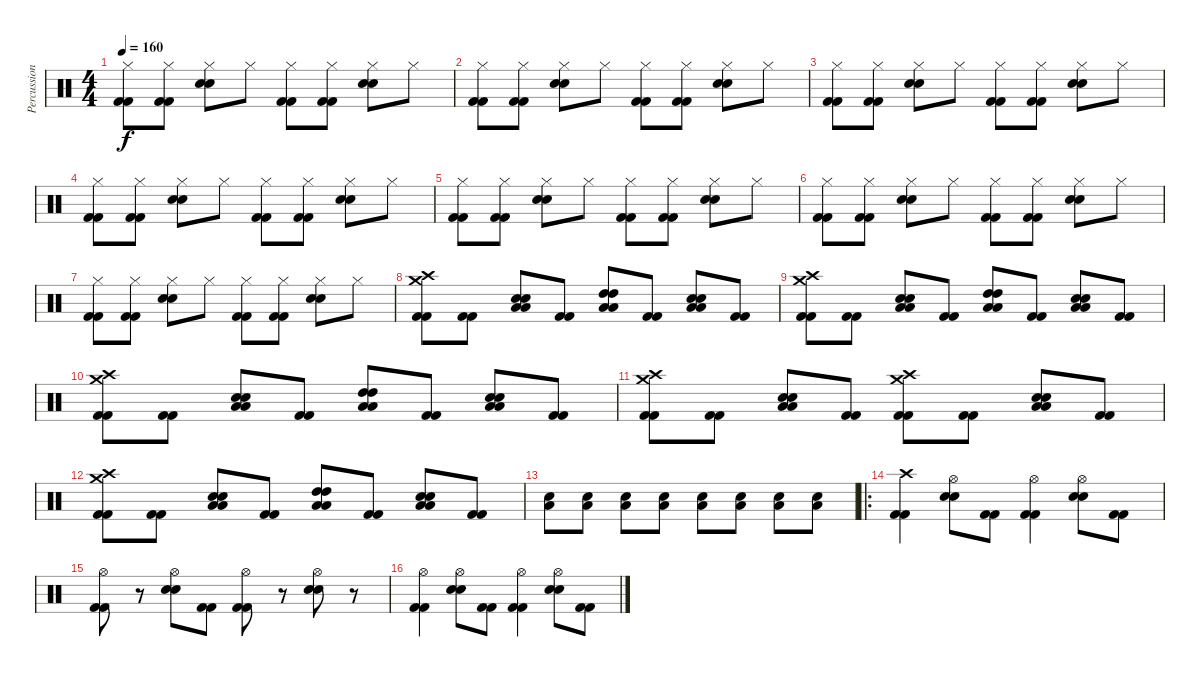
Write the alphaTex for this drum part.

\track ("Percussion" "Percussion") {instrument percussion}
\staff {score}
\articulation defaults
\ts (4 4)
\tempo 160
\clef neutral
\ks c
("Hi-Hat (closed)" "Kick (hit) 2" "Kick (hit) 2").8{dy f} ("Hi-Hat (closed)" "Kick (hit) 2" "Kick (hit) 2").8 ("Hi-Hat (closed)" "Snare (hit) 2" "Snare (hit) 2").8 "Hi-Hat (closed)".8 ("Hi-Hat (closed)" "Kick (hit) 2" "Kick (hit) 2").8 ("Hi-Hat (closed)" "Kick (hit) 2" "Kick (hit) 2").8 ("Hi-Hat (closed)" "Snare (hit) 2" "Snare (hit) 2").8 "Hi-Hat (closed)".8 |
("Hi-Hat (closed)" "Kick (hit) 2" "Kick (hit) 2").8 ("Hi-Hat (closed)" "Kick (hit) 2" "Kick (hit) 2").8 ("Hi-Hat (closed)" "Snare (hit) 2" "Snare (hit) 2").8 "Hi-Hat (closed)".8 ("Hi-Hat (closed)" "Kick (hit) 2" "Kick (hit) 2").8 ("Hi-Hat (closed)" "Kick (hit) 2" "Kick (hit) 2").8 ("Hi-Hat (closed)" "Snare (hit) 2" "Snare (hit) 2").8 "Hi-Hat (closed)".8 |
("Hi-Hat (closed)" "Kick (hit) 2" "Kick (hit) 2").8 ("Hi-Hat (closed)" "Kick (hit) 2" "Kick (hit) 2").8 ("Hi-Hat (closed)" "Snare (hit) 2" "Snare (hit) 2").8 "Hi-Hat (closed)".8 ("Hi-Hat (closed)" "Kick (hit) 2" "Kick (hit) 2").8 ("Hi-Hat (closed)" "Kick (hit) 2" "Kick (hit) 2").8 ("Hi-Hat (closed)" "Snare (hit) 2" "Snare (hit) 2").8 "Hi-Hat (closed)".8 |
("Hi-Hat (closed)" "Kick (hit) 2" "Kick (hit) 2").8 ("Hi-Hat (closed)" "Kick (hit) 2" "Kick (hit) 2").8 ("Hi-Hat (closed)" "Snare (hit) 2" "Snare (hit) 2").8 "Hi-Hat (closed)".8 ("Hi-Hat (closed)" "Kick (hit) 2" "Kick (hit) 2").8 ("Hi-Hat (closed)" "Kick (hit) 2" "Kick (hit) 2").8 ("Hi-Hat (closed)" "Snare (hit) 2" "Snare (hit) 2").8 "Hi-Hat (closed)".8 |
("Hi-Hat (closed)" "Kick (hit) 2" "Kick (hit) 2").8 ("Hi-Hat (closed)" "Kick (hit) 2" "Kick (hit) 2").8 ("Hi-Hat (closed)" "Snare (hit) 2" "Snare (hit) 2").8 "Hi-Hat (closed)".8 ("Hi-Hat (closed)" "Kick (hit) 2" "Kick (hit) 2").8 ("Hi-Hat (closed)" "Kick (hit) 2" "Kick (hit) 2").8 ("Hi-Hat (closed)" "Snare (hit) 2" "Snare (hit) 2").8 "Hi-Hat (closed)".8 |
("Hi-Hat (closed)" "Kick (hit) 2" "Kick (hit) 2").8 ("Hi-Hat (closed)" "Kick (hit) 2" "Kick (hit) 2").8 ("Hi-Hat (closed)" "Snare (hit) 2" "Snare (hit) 2").8 "Hi-Hat (closed)".8 ("Hi-Hat (closed)" "Kick (hit) 2" "Kick (hit) 2").8 ("Hi-Hat (closed)" "Kick (hit) 2" "Kick (hit) 2").8 ("Hi-Hat (closed)" "Snare (hit) 2" "Snare (hit) 2").8 "Hi-Hat (closed)".8 |
("Hi-Hat (closed)" "Kick (hit) 2" "Kick (hit) 2").8 ("Hi-Hat (closed)" "Kick (hit) 2" "Kick (hit) 2").8 ("Hi-Hat (closed)" "Snare (hit) 2" "Snare (hit) 2").8 "Hi-Hat (closed)".8 ("Hi-Hat (closed)" "Kick (hit) 2" "Kick (hit) 2").8 ("Hi-Hat (closed)" "Kick (hit) 2" "Kick (hit) 2").8 ("Hi-Hat (closed)" "Snare (hit) 2" "Snare (hit) 2").8 "Hi-Hat (closed)".8 |
("Crash high (hit)" "Crash medium (hit)" "Kick (hit) 2" "Kick (hit) 2").8 ("Kick (hit) 2" "Kick (hit) 2").8 ("Low Floor Tom (hit)" "Low Floor Tom (hit)" "Snare (hit) 2" "Snare (hit) 2").8 ("Kick (hit) 2" "Kick (hit) 2").8 ("Low Floor Tom (hit)" "Low Floor Tom (hit)" "High Tom (hit)" "High Tom (hit)").8 ("Kick (hit) 2" "Kick (hit) 2").8 ("Low Floor Tom (hit)" "Low Floor Tom (hit)" "Snare (hit) 2" "Snare (hit) 2").8 ("Kick (hit) 2" "Kick (hit) 2").8 |
("Crash high (hit)" "Crash medium (hit)" "Kick (hit) 2" "Kick (hit) 2").8 ("Kick (hit) 2" "Kick (hit) 2").8 ("Low Floor Tom (hit)" "Low Floor Tom (hit)" "Snare (hit) 2" "Snare (hit) 2").8 ("Kick (hit) 2" "Kick (hit) 2").8 ("Low Floor Tom (hit)" "Low Floor Tom (hit)" "High Tom (hit)" "High Tom (hit)").8 ("Kick (hit) 2" "Kick (hit) 2").8 ("Low Floor Tom (hit)" "Low Floor Tom (hit)" "Snare (hit) 2" "Snare (hit) 2").8 ("Kick (hit) 2" "Kick (hit) 2").8 |
("Crash high (hit)" "Crash medium (hit)" "Kick (hit) 2" "Kick (hit) 2").8 ("Kick (hit) 2" "Kick (hit) 2").8 ("Low Floor Tom (hit)" "Low Floor Tom (hit)" "Snare (hit) 2" "Snare (hit) 2").8 ("Kick (hit) 2" "Kick (hit) 2").8 ("Low Floor Tom (hit)" "Low Floor Tom (hit)" "High Tom (hit)" "High Tom (hit)").8 ("Kick (hit) 2" "Kick (hit) 2").8 ("Low Floor Tom (hit)" "Low Floor Tom (hit)" "Snare (hit) 2" "Snare (hit) 2").8 ("Kick (hit) 2" "Kick (hit) 2").8 |
("Crash high (hit)" "Crash medium (hit)" "Kick (hit) 2" "Kick (hit) 2").8 ("Kick (hit) 2" "Kick (hit) 2").8 ("Low Floor Tom (hit)" "Low Floor Tom (hit)" "Snare (hit) 2" "Snare (hit) 2").8 ("Kick (hit) 2" "Kick (hit) 2").8 ("Crash medium (hit)" "Crash high (hit)" "Kick (hit) 2" "Kick (hit) 2").8 ("Kick (hit) 2" "Kick (hit) 2").8 ("Low Floor Tom (hit)" "Low Floor Tom (hit)" "Snare (hit) 2" "Snare (hit) 2").8 ("Kick (hit) 2" "Kick (hit) 2").8 |
("Crash high (hit)" "Crash medium (hit)" "Kick (hit) 2" "Kick (hit) 2").8 ("Kick (hit) 2" "Kick (hit) 2").8 ("Low Floor Tom (hit)" "Low Floor Tom (hit)" "Snare (hit) 2" "Snare (hit) 2").8 ("Kick (hit) 2" "Kick (hit) 2").8 ("Low Floor Tom (hit)" "Low Floor Tom (hit)" "High Tom (hit)" "High Tom (hit)").8 ("Kick (hit) 2" "Kick (hit) 2").8 ("Low Floor Tom (hit)" "Low Floor Tom (hit)" "Snare (hit) 2" "Snare (hit) 2").8 ("Kick (hit) 2" "Kick (hit) 2").8 |
("Low Floor Tom (hit)" "Snare (hit) 2").8 ("Low Floor Tom (hit)" "Snare (hit) 2").8 ("Low Floor Tom (hit)" "Snare (hit) 2").8 ("Low Floor Tom (hit)" "Snare (hit) 2").8 ("Low Floor Tom (hit)" "Snare (hit) 2").8 ("Low Floor Tom (hit)" "Snare (hit) 2").8 ("Low Floor Tom (hit)" "Snare (hit) 2").8 ("Low Floor Tom (hit)" "Snare (hit) 2").8 |
\ro
("Crash high (hit)" "Kick (hit) 2" "Kick (hit) 2").4 ("Hi-Hat (open)" "Snare (hit) 2" "Snare (hit) 2").8 ("Kick (hit) 2" "Kick (hit) 2").8 ("Hi-Hat (open)" "Kick (hit) 2" "Kick (hit) 2").4 ("Hi-Hat (open)" "Snare (hit) 2" "Snare (hit) 2").8 ("Kick (hit) 2" "Kick (hit) 2").8 |
("Hi-Hat (open)" "Kick (hit) 2" "Kick (hit) 2").8 r.8 ("Hi-Hat (open)" "Snare (hit) 2" "Snare (hit) 2").8 ("Kick (hit) 2" "Kick (hit) 2").8 ("Hi-Hat (open)" "Kick (hit) 2" "Kick (hit) 2").8 r.8 ("Hi-Hat (open)" "Snare (hit) 2" "Snare (hit) 2").8 r.8 |
("Hi-Hat (open)" "Kick (hit) 2" "Kick (hit) 2").4 ("Hi-Hat (open)" "Snare (hit) 2" "Snare (hit) 2").8 ("Kick (hit) 2" "Kick (hit) 2").8 ("Hi-Hat (open)" "Kick (hit) 2" "Kick (hit) 2").4 ("Hi-Hat (open)" "Snare (hit) 2" "Snare (hit) 2").8 ("Kick (hit) 2" "Kick (hit) 2").8
